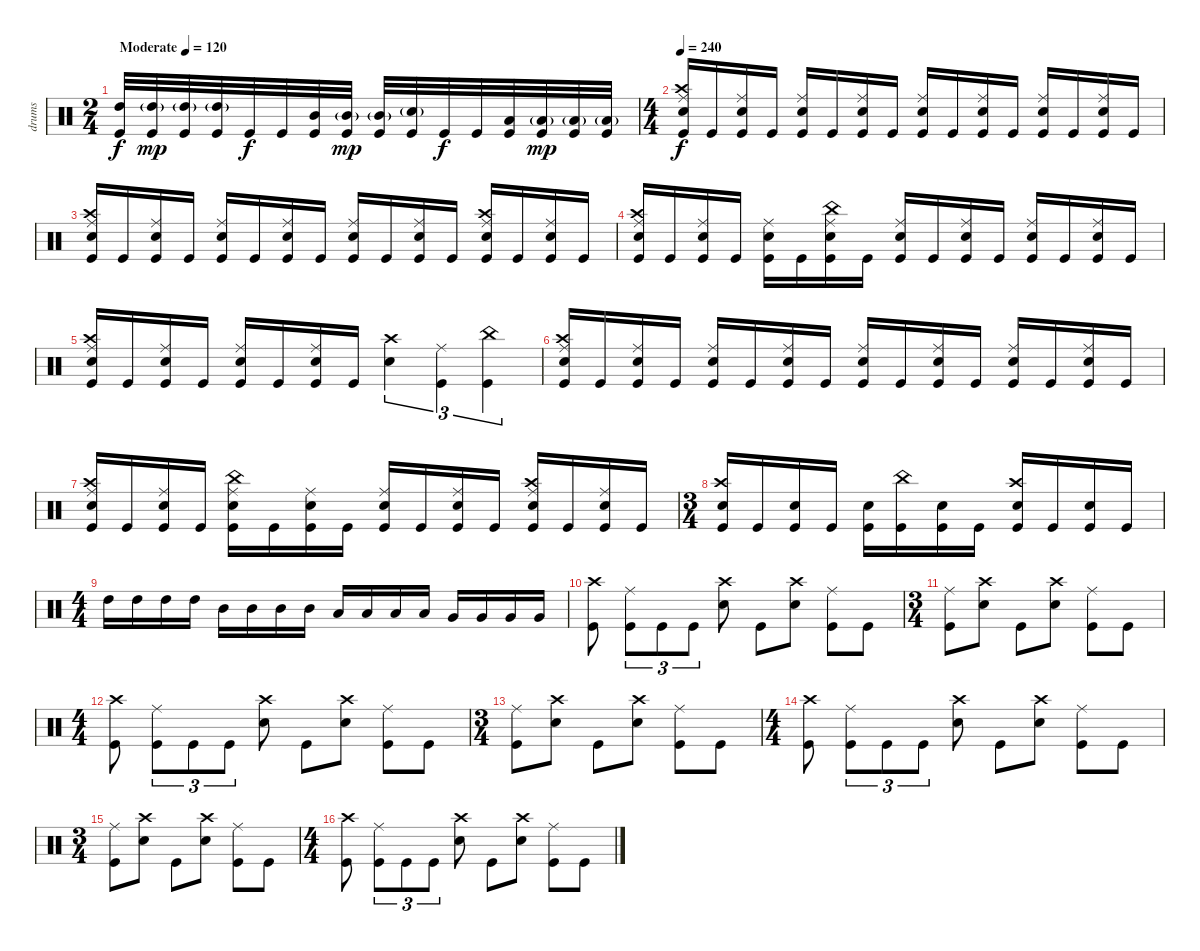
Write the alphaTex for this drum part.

\track ("drums" "drums") {instrument percussion}
\staff {score}
\articulation defaults
\ts (2 4)
\tempo (120 "Moderate")
\clef neutral
\ks c
("High Tom (hit)" "Kick (hit)").32{dy f} ("High Tom (hit)"{g} "Kick (hit)").32{dy mp} ("High Tom (hit)"{g} "Kick (hit)").32 ("High Tom (hit)"{g} "Kick (hit)").32 "Kick (hit)".32{dy f} "Kick (hit)".32 ("Mid Tom (hit)" "Kick (hit)").32 ("Mid Tom (hit)"{g} "Kick (hit)").32{dy mp} ("Mid Tom (hit)"{g} "Kick (hit)").32 ("Snare (hit)"{g} "Kick (hit)").32 "Kick (hit)".32{dy f} "Kick (hit)".32 ("Low Tom (hit)" "Kick (hit)").32 ("Low Tom (hit)"{g} "Kick (hit)").32{dy mp} ("Low Tom (hit)"{g} "Kick (hit)").32 ("Low Tom (hit)"{g} "Kick (hit)").32 |
\ts (4 4)
\tempo 240
("Crash high (hit)" "Ride (middle)" "Electric Snare (hit)" "Kick (hit)").16{dy f} "Kick (hit)".16 ("Ride (middle)" "Electric Snare (hit)" "Kick (hit)").16 "Kick (hit)".16 ("Ride (middle)" "Electric Snare (hit)" "Kick (hit)").16 "Kick (hit)".16 ("Ride (middle)" "Electric Snare (hit)" "Kick (hit)").16 "Kick (hit)".16 ("Ride (middle)" "Electric Snare (hit)" "Kick (hit)").16 "Kick (hit)".16 ("Ride (middle)" "Electric Snare (hit)" "Kick (hit)").16 "Kick (hit)".16 ("Ride (middle)" "Electric Snare (hit)" "Kick (hit)").16 "Kick (hit)".16 ("Ride (middle)" "Electric Snare (hit)" "Kick (hit)").16 "Kick (hit)".16 |
("Crash high (hit)" "Ride (middle)" "Electric Snare (hit)" "Kick (hit)").16 "Kick (hit)".16 ("Ride (middle)" "Electric Snare (hit)" "Kick (hit)").16 "Kick (hit)".16 ("Ride (middle)" "Electric Snare (hit)" "Kick (hit)").16 "Kick (hit)".16 ("Ride (middle)" "Electric Snare (hit)" "Kick (hit)").16 "Kick (hit)".16 ("Ride (middle)" "Electric Snare (hit)" "Kick (hit)").16 "Kick (hit)".16 ("Ride (middle)" "Electric Snare (hit)" "Kick (hit)").16 "Kick (hit)".16 ("Crash high (hit)" "Ride (middle)" "Electric Snare (hit)" "Kick (hit)").16 "Kick (hit)".16 ("Ride (middle)" "Electric Snare (hit)" "Kick (hit)").16 "Kick (hit)".16 |
("Crash high (hit)" "Ride (middle)" "Electric Snare (hit)" "Kick (hit)").16 "Kick (hit)".16 ("Ride (middle)" "Electric Snare (hit)" "Kick (hit)").16 "Kick (hit)".16 ("Ride (middle)" "Electric Snare (hit)" "Kick (hit)").16 "Kick (hit)".16 ("China (hit)" "Ride (middle)" "Electric Snare (hit)" "Kick (hit)").16 "Kick (hit)".16 ("Ride (middle)" "Electric Snare (hit)" "Kick (hit)").16 "Kick (hit)".16 ("Ride (middle)" "Electric Snare (hit)" "Kick (hit)").16 "Kick (hit)".16 ("Ride (middle)" "Electric Snare (hit)" "Kick (hit)").16 "Kick (hit)".16 ("Ride (middle)" "Electric Snare (hit)" "Kick (hit)").16 "Kick (hit)".16 |
("Crash high (hit)" "Ride (middle)" "Electric Snare (hit)" "Kick (hit)").16 "Kick (hit)".16 ("Ride (middle)" "Electric Snare (hit)" "Kick (hit)").16 "Kick (hit)".16 ("Ride (middle)" "Electric Snare (hit)" "Kick (hit)").16 "Kick (hit)".16 ("Ride (middle)" "Electric Snare (hit)" "Kick (hit)").16 "Kick (hit)".16 ("Crash high (hit)" "Electric Snare (hit)").4{tu (3 2)} ("Ride (middle)" "Kick (hit)").4{tu (3 2)} ("China (hit)" "Kick (hit)").4{tu (3 2)} |
("Crash high (hit)" "Ride (middle)" "Electric Snare (hit)" "Kick (hit)").16 "Kick (hit)".16 ("Ride (middle)" "Electric Snare (hit)" "Kick (hit)").16 "Kick (hit)".16 ("Ride (middle)" "Electric Snare (hit)" "Kick (hit)").16 "Kick (hit)".16 ("Ride (middle)" "Electric Snare (hit)" "Kick (hit)").16 "Kick (hit)".16 ("Ride (middle)" "Electric Snare (hit)" "Kick (hit)").16 "Kick (hit)".16 ("Ride (middle)" "Electric Snare (hit)" "Kick (hit)").16 "Kick (hit)".16 ("Ride (middle)" "Electric Snare (hit)" "Kick (hit)").16 "Kick (hit)".16 ("Ride (middle)" "Electric Snare (hit)" "Kick (hit)").16 "Kick (hit)".16 |
("Crash high (hit)" "Ride (middle)" "Electric Snare (hit)" "Kick (hit)").16 "Kick (hit)".16 ("Ride (middle)" "Electric Snare (hit)" "Kick (hit)").16 "Kick (hit)".16 ("China (hit)" "Ride (middle)" "Electric Snare (hit)" "Kick (hit)").16 "Kick (hit)".16 ("Ride (middle)" "Electric Snare (hit)" "Kick (hit)").16 "Kick (hit)".16 ("Ride (middle)" "Electric Snare (hit)" "Kick (hit)").16 "Kick (hit)".16 ("Ride (middle)" "Electric Snare (hit)" "Kick (hit)").16 "Kick (hit)".16 ("Crash high (hit)" "Ride (middle)" "Electric Snare (hit)" "Kick (hit)").16 "Kick (hit)".16 ("Ride (middle)" "Electric Snare (hit)" "Kick (hit)").16 "Kick (hit)".16 |
\ts (3 4)
("Crash high (hit)" "Electric Snare (hit)" "Kick (hit)").16 "Kick (hit)".16 ("Electric Snare (hit)" "Kick (hit)").16 "Kick (hit)".16 ("Electric Snare (hit)" "Kick (hit)").16 ("China (hit)" "Kick (hit)").16 ("Electric Snare (hit)" "Kick (hit)").16 "Kick (hit)".16 ("Crash high (hit)" "Electric Snare (hit)" "Kick (hit)").16 "Kick (hit)".16 ("Electric Snare (hit)" "Kick (hit)").16 "Kick (hit)".16 |
\ts (4 4)
"High Tom (hit)".16 "High Tom (hit)".16 "High Tom (hit)".16 "High Tom (hit)".16 "Mid Tom (hit)".16 "Mid Tom (hit)".16 "Mid Tom (hit)".16 "Mid Tom (hit)".16 "Low Tom (hit)".16 "Low Tom (hit)".16 "Low Tom (hit)".16 "Low Tom (hit)".16 "Very Low Tom (hit)".16 "Very Low Tom (hit)".16 "Very Low Tom (hit)".16 "Very Low Tom (hit)".16 |
("Crash high (hit)" "Kick (hit)").8 ("Ride (middle)" "Kick (hit)").8{tu (3 2)} "Kick (hit)".8{tu (3 2)} "Kick (hit)".8{tu (3 2)} ("Crash high (hit)" "Electric Snare (hit)").8 "Kick (hit)".8 ("Crash high (hit)" "Electric Snare (hit)").8 ("Ride (middle)" "Kick (hit)").8 "Kick (hit)".8 |
\ts (3 4)
("Ride (middle)" "Kick (hit)").8 ("Crash high (hit)" "Electric Snare (hit)").8 "Kick (hit)".8 ("Crash high (hit)" "Electric Snare (hit)").8 ("Ride (middle)" "Kick (hit)").8 "Kick (hit)".8 |
\ts (4 4)
("Crash high (hit)" "Kick (hit)").8 ("Ride (middle)" "Kick (hit)").8{tu (3 2)} "Kick (hit)".8{tu (3 2)} "Kick (hit)".8{tu (3 2)} ("Crash high (hit)" "Electric Snare (hit)").8 "Kick (hit)".8 ("Crash high (hit)" "Electric Snare (hit)").8 ("Ride (middle)" "Kick (hit)").8 "Kick (hit)".8 |
\ts (3 4)
("Ride (middle)" "Kick (hit)").8 ("Crash high (hit)" "Electric Snare (hit)").8 "Kick (hit)".8 ("Crash high (hit)" "Electric Snare (hit)").8 ("Ride (middle)" "Kick (hit)").8 "Kick (hit)".8 |
\ts (4 4)
("Crash high (hit)" "Kick (hit)").8 ("Ride (middle)" "Kick (hit)").8{tu (3 2)} "Kick (hit)".8{tu (3 2)} "Kick (hit)".8{tu (3 2)} ("Crash high (hit)" "Electric Snare (hit)").8 "Kick (hit)".8 ("Crash high (hit)" "Electric Snare (hit)").8 ("Ride (middle)" "Kick (hit)").8 "Kick (hit)".8 |
\ts (3 4)
("Ride (middle)" "Kick (hit)").8 ("Crash high (hit)" "Electric Snare (hit)").8 "Kick (hit)".8 ("Crash high (hit)" "Electric Snare (hit)").8 ("Ride (middle)" "Kick (hit)").8 "Kick (hit)".8 |
\ts (4 4)
("Crash high (hit)" "Kick (hit)").8 ("Ride (middle)" "Kick (hit)").8{tu (3 2)} "Kick (hit)".8{tu (3 2)} "Kick (hit)".8{tu (3 2)} ("Crash high (hit)" "Electric Snare (hit)").8 "Kick (hit)".8 ("Crash high (hit)" "Electric Snare (hit)").8 ("Ride (middle)" "Kick (hit)").8 "Kick (hit)".8
